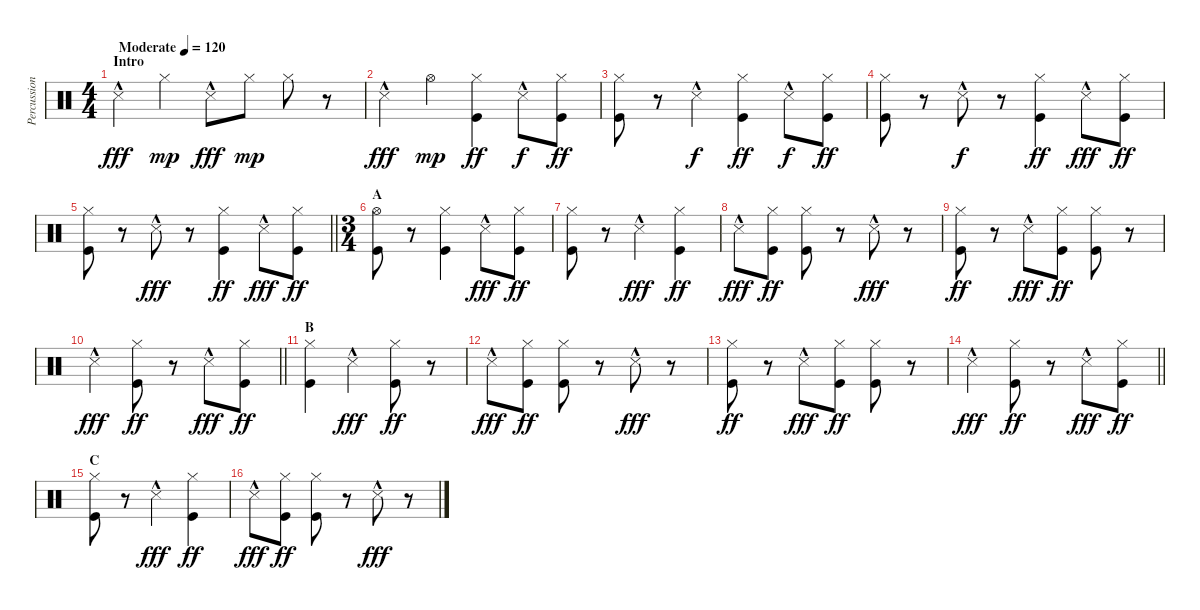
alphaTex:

\track ("Percussion" "Percussion") {instrument percussion}
\staff {score}
\articulation defaults
\ts (4 4)
\section ("" "Intro")
\tempo (120 "Moderate")
\clef neutral
\ks c "Snare (side stick) 3"{hac}.4{dy fff} "Hi-Hat (closed)".4{dy mp} "Snare (side stick) 3"{hac}.8{dy fff} "Hi-Hat (closed)".8{dy mp} "Hi-Hat (closed)".8
r.8 |
"Snare (side stick) 3"{hac}.4{dy fff} "Hi-Hat (open)".4{dy mp} ("Hi-Hat (closed)" "Kick (hit)").4{dy ff} "Snare (side stick) 3"{hac}.8{dy f} ("Hi-Hat (closed)" "Kick (hit)").8{dy ff} |
("Hi-Hat (closed)" "Kick (hit)").8 r.8 "Snare (side stick) 3"{hac}.4{dy f} ("Hi-Hat (closed)" "Kick (hit)").4{dy ff} "Snare (side stick) 3"{hac}.8{dy f} ("Hi-Hat (closed)" "Kick (hit)").8{dy ff} |
("Hi-Hat (closed)" "Kick (hit)").8 r.8 "Snare (side stick) 3"{hac}.8{dy f} r.8 ("Hi-Hat (closed)" "Kick (hit)").4{dy ff} "Snare (side stick) 3"{hac}.8{dy fff} ("Hi-Hat (closed)" "Kick (hit)").8{dy ff} |
\barLineRight lightlight
("Hi-Hat (closed)" "Kick (hit)").8 r.8 "Snare (side stick) 3"{hac}.8{dy fff} r.8 ("Hi-Hat (closed)" "Kick (hit)").4{dy ff} "Snare (side stick) 3"{hac}.8{dy fff} ("Hi-Hat (closed)" "Kick (hit)").8{dy ff} |
\ts (3 4)
\section ("" "A")
("Hi-Hat (open)" "Kick (hit)").8 r.8 ("Hi-Hat (closed)" "Kick (hit)").4 "Snare (side stick) 3"{hac}.8{dy fff} ("Hi-Hat (closed)" "Kick (hit)").8{dy ff} |
("Hi-Hat (closed)" "Kick (hit)").8 r.8 "Snare (side stick) 3"{hac}.4{dy fff} ("Hi-Hat (closed)" "Kick (hit)").4{dy ff} |
"Snare (side stick) 3"{hac}.8{dy fff} ("Hi-Hat (closed)" "Kick (hit)").8{dy ff} ("Hi-Hat (closed)" "Kick (hit)").8 r.8 "Snare (side stick) 3"{hac}.8{dy fff} r.8 |
("Hi-Hat (closed)" "Kick (hit)").8{dy ff} r.8 "Snare (side stick) 3"{hac}.8{dy fff} ("Hi-Hat (closed)" "Kick (hit)").8{dy ff} ("Hi-Hat (closed)" "Kick (hit)").8 r.8 |
\barLineRight lightlight "Snare (side stick) 3"{hac}.4{dy fff}
("Hi-Hat (closed)" "Kick (hit)").8{dy ff} r.8 "Snare (side stick) 3"{hac}.8{dy fff} ("Hi-Hat (closed)" "Kick (hit)").8{dy ff} |
\section ("" "B")
("Hi-Hat (closed)" "Kick (hit)").4 "Snare (side stick) 3"{hac}.4{dy fff} ("Hi-Hat (closed)" "Kick (hit)").8{dy ff} r.8 |
"Snare (side stick) 3"{hac}.8{dy fff} ("Hi-Hat (closed)" "Kick (hit)").8{dy ff} ("Hi-Hat (closed)" "Kick (hit)").8 r.8 "Snare (side stick) 3"{hac}.8{dy fff} r.8 |
("Hi-Hat (closed)" "Kick (hit)").8{dy ff} r.8 "Snare (side stick) 3"{hac}.8{dy fff} ("Hi-Hat (closed)" "Kick (hit)").8{dy ff} ("Hi-Hat (closed)" "Kick (hit)").8 r.8 |
\barLineRight lightlight "Snare (side stick) 3"{hac}.4{dy fff}
("Hi-Hat (closed)" "Kick (hit)").8{dy ff} r.8 "Snare (side stick) 3"{hac}.8{dy fff} ("Hi-Hat (closed)" "Kick (hit)").8{dy ff} |
\section ("" "C")
("Hi-Hat (closed)" "Kick (hit)").8 r.8 "Snare (side stick) 3"{hac}.4{dy fff} ("Hi-Hat (closed)" "Kick (hit)").4{dy ff} |
"Snare (side stick) 3"{hac}.8{dy fff} ("Hi-Hat (closed)" "Kick (hit)").8{dy ff} ("Hi-Hat (closed)" "Kick (hit)").8 r.8 "Snare (side stick) 3"{hac}.8{dy fff} r.8
